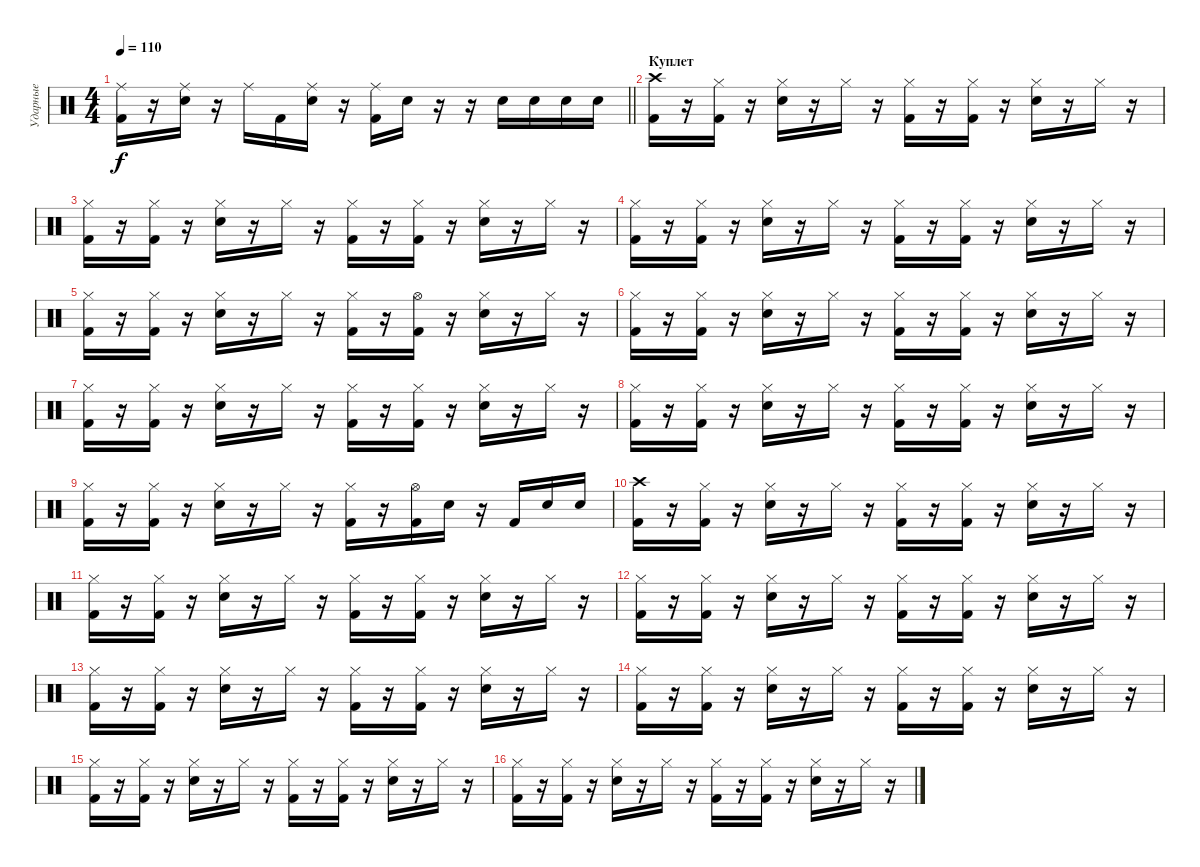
\track ("Ударные" "Ударные") {instrument percussion}
\staff {score}
\articulation defaults
\ts (4 4)
\tempo 110
\clef neutral
\barLineRight lightlight
\ks c
("Ride (middle)" "Kick (hit) 2").16{dy f} r.16 ("Ride (middle)" "Electric Snare (hit)").16 r.16 "Ride (middle)".16 "Kick (hit) 2".16 ("Ride (middle)" "Electric Snare (hit)").16 r.16 ("Ride (middle)" "Kick (hit) 2").16 "Electric Snare (hit)".16 r.16 r.16 "Electric Snare (hit)".16 "Electric Snare (hit)".16 "Electric Snare (hit)".16 "Electric Snare (hit)".16 |
\section ("" "Куплет")
("Crash high (hit)" "Kick (hit) 2").16 r.16 ("Hi-Hat (closed)" "Kick (hit) 2").16 r.16 ("Hi-Hat (closed)" "Electric Snare (hit)").16 r.16 "Hi-Hat (closed)".16 r.16 ("Hi-Hat (closed)" "Kick (hit) 2").16 r.16 ("Hi-Hat (closed)" "Kick (hit) 2").16 r.16 ("Hi-Hat (closed)" "Electric Snare (hit)").16 r.16 "Hi-Hat (closed)".16 r.16 |
("Hi-Hat (closed)" "Kick (hit) 2").16 r.16 ("Hi-Hat (closed)" "Kick (hit) 2").16 r.16 ("Hi-Hat (closed)" "Electric Snare (hit)").16 r.16 "Hi-Hat (closed)".16 r.16 ("Hi-Hat (closed)" "Kick (hit) 2").16 r.16 ("Hi-Hat (closed)" "Kick (hit) 2").16 r.16 ("Hi-Hat (closed)" "Electric Snare (hit)").16 r.16 "Hi-Hat (closed)".16 r.16 |
("Hi-Hat (closed)" "Kick (hit) 2").16 r.16 ("Hi-Hat (closed)" "Kick (hit) 2").16 r.16 ("Hi-Hat (closed)" "Electric Snare (hit)").16 r.16 "Hi-Hat (closed)".16 r.16 ("Hi-Hat (closed)" "Kick (hit) 2").16 r.16 ("Hi-Hat (closed)" "Kick (hit) 2").16 r.16 ("Hi-Hat (closed)" "Electric Snare (hit)").16 r.16 "Hi-Hat (closed)".16 r.16 |
("Hi-Hat (closed)" "Kick (hit) 2").16 r.16 ("Hi-Hat (closed)" "Kick (hit) 2").16 r.16 ("Hi-Hat (closed)" "Electric Snare (hit)").16 r.16 "Hi-Hat (closed)".16 r.16 ("Hi-Hat (closed)" "Kick (hit) 2").16 r.16 ("Hi-Hat (open)" "Kick (hit) 2").16 r.16 ("Hi-Hat (closed)" "Electric Snare (hit)").16 r.16 "Hi-Hat (closed)".16 r.16 |
("Hi-Hat (closed)" "Kick (hit) 2").16 r.16 ("Hi-Hat (closed)" "Kick (hit) 2").16 r.16 ("Hi-Hat (closed)" "Electric Snare (hit)").16 r.16 "Hi-Hat (closed)".16 r.16 ("Hi-Hat (closed)" "Kick (hit) 2").16 r.16 ("Hi-Hat (closed)" "Kick (hit) 2").16 r.16 ("Hi-Hat (closed)" "Electric Snare (hit)").16 r.16 "Hi-Hat (closed)".16 r.16 |
("Hi-Hat (closed)" "Kick (hit) 2").16 r.16 ("Hi-Hat (closed)" "Kick (hit) 2").16 r.16 ("Hi-Hat (closed)" "Electric Snare (hit)").16 r.16 "Hi-Hat (closed)".16 r.16 ("Hi-Hat (closed)" "Kick (hit) 2").16 r.16 ("Hi-Hat (closed)" "Kick (hit) 2").16 r.16 ("Hi-Hat (closed)" "Electric Snare (hit)").16 r.16 "Hi-Hat (closed)".16 r.16 |
("Hi-Hat (closed)" "Kick (hit) 2").16 r.16 ("Hi-Hat (closed)" "Kick (hit) 2").16 r.16 ("Hi-Hat (closed)" "Electric Snare (hit)").16 r.16 "Hi-Hat (closed)".16 r.16 ("Hi-Hat (closed)" "Kick (hit) 2").16 r.16 ("Hi-Hat (closed)" "Kick (hit) 2").16 r.16 ("Hi-Hat (closed)" "Electric Snare (hit)").16 r.16 "Hi-Hat (closed)".16 r.16 |
("Hi-Hat (closed)" "Kick (hit) 2").16 r.16 ("Hi-Hat (closed)" "Kick (hit) 2").16 r.16 ("Hi-Hat (closed)" "Electric Snare (hit)").16 r.16 "Hi-Hat (closed)".16 r.16 ("Hi-Hat (closed)" "Kick (hit) 2").16 r.16 ("Hi-Hat (open)" "Kick (hit) 2").16 "Electric Snare (hit)".16 r.16 "Kick (hit) 2".16 "Electric Snare (hit)".16 "Electric Snare (hit)".16 |
("Crash high (hit)" "Kick (hit) 2").16 r.16 ("Hi-Hat (closed)" "Kick (hit) 2").16 r.16 ("Hi-Hat (closed)" "Electric Snare (hit)").16 r.16 "Hi-Hat (closed)".16 r.16 ("Hi-Hat (closed)" "Kick (hit) 2").16 r.16 ("Hi-Hat (closed)" "Kick (hit) 2").16 r.16 ("Hi-Hat (closed)" "Electric Snare (hit)").16 r.16 "Hi-Hat (closed)".16 r.16 |
("Hi-Hat (closed)" "Kick (hit) 2").16 r.16 ("Hi-Hat (closed)" "Kick (hit) 2").16 r.16 ("Hi-Hat (closed)" "Electric Snare (hit)").16 r.16 "Hi-Hat (closed)".16 r.16 ("Hi-Hat (closed)" "Kick (hit) 2").16 r.16 ("Hi-Hat (closed)" "Kick (hit) 2").16 r.16 ("Hi-Hat (closed)" "Electric Snare (hit)").16 r.16 "Hi-Hat (closed)".16 r.16 |
("Hi-Hat (closed)" "Kick (hit) 2").16 r.16 ("Hi-Hat (closed)" "Kick (hit) 2").16 r.16 ("Hi-Hat (closed)" "Electric Snare (hit)").16 r.16 "Hi-Hat (closed)".16 r.16 ("Hi-Hat (closed)" "Kick (hit) 2").16 r.16 ("Hi-Hat (closed)" "Kick (hit) 2").16 r.16 ("Hi-Hat (closed)" "Electric Snare (hit)").16 r.16 "Hi-Hat (closed)".16 r.16 |
("Hi-Hat (closed)" "Kick (hit) 2").16 r.16 ("Hi-Hat (closed)" "Kick (hit) 2").16 r.16 ("Hi-Hat (closed)" "Electric Snare (hit)").16 r.16 "Hi-Hat (closed)".16 r.16 ("Hi-Hat (closed)" "Kick (hit) 2").16 r.16 ("Hi-Hat (closed)" "Kick (hit) 2").16 r.16 ("Hi-Hat (closed)" "Electric Snare (hit)").16 r.16 "Hi-Hat (closed)".16 r.16 |
("Hi-Hat (closed)" "Kick (hit) 2").16 r.16 ("Hi-Hat (closed)" "Kick (hit) 2").16 r.16 ("Hi-Hat (closed)" "Electric Snare (hit)").16 r.16 "Hi-Hat (closed)".16 r.16 ("Hi-Hat (closed)" "Kick (hit) 2").16 r.16 ("Hi-Hat (closed)" "Kick (hit) 2").16 r.16 ("Hi-Hat (closed)" "Electric Snare (hit)").16 r.16 "Hi-Hat (closed)".16 r.16 |
("Hi-Hat (closed)" "Kick (hit) 2").16 r.16 ("Hi-Hat (closed)" "Kick (hit) 2").16 r.16 ("Hi-Hat (closed)" "Electric Snare (hit)").16 r.16 "Hi-Hat (closed)".16 r.16 ("Hi-Hat (closed)" "Kick (hit) 2").16 r.16 ("Hi-Hat (closed)" "Kick (hit) 2").16 r.16 ("Hi-Hat (closed)" "Electric Snare (hit)").16 r.16 "Hi-Hat (closed)".16 r.16 |
("Hi-Hat (closed)" "Kick (hit) 2").16 r.16 ("Hi-Hat (closed)" "Kick (hit) 2").16 r.16 ("Hi-Hat (closed)" "Electric Snare (hit)").16 r.16 "Hi-Hat (closed)".16 r.16 ("Hi-Hat (closed)" "Kick (hit) 2").16 r.16 ("Hi-Hat (closed)" "Kick (hit) 2").16 r.16 ("Hi-Hat (closed)" "Electric Snare (hit)").16 r.16 "Hi-Hat (closed)".16 r.16
